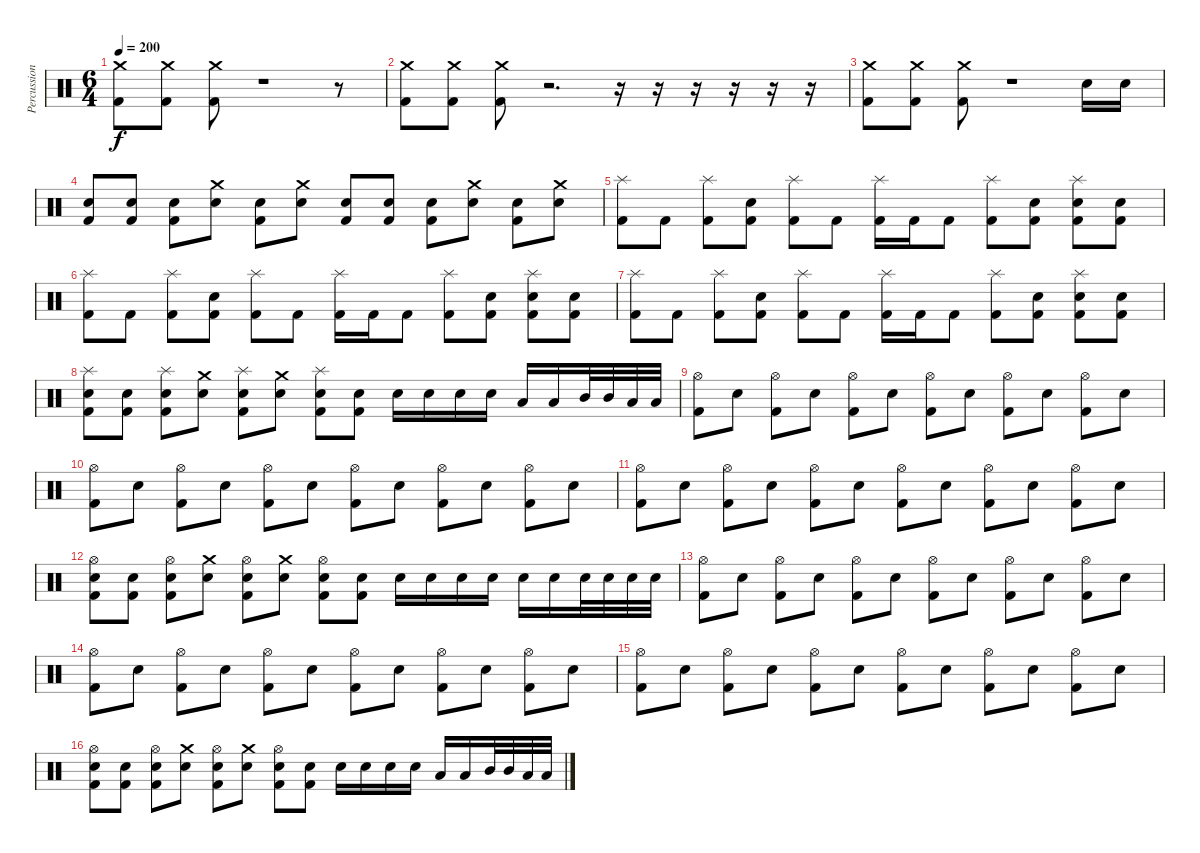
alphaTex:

\track ("Percussion" "Percussion") {instrument percussion}
\staff {score}
\articulation defaults
\ts (6 4)
\tempo 200
\clef neutral
\ks c
("Crash medium (hit)" "Kick (hit) 2").8{dy f} ("Crash medium (hit)" "Kick (hit) 2").8 ("Crash medium (hit)" "Kick (hit) 2").8 r.1 r.8 |
("Crash medium (hit)" "Kick (hit) 2").8 ("Crash medium (hit)" "Kick (hit) 2").8 ("Crash medium (hit)" "Kick (hit) 2").8 r.2{d} r.16 r.16 r.16 r.16 r.16 r.16 |
("Crash medium (hit)" "Kick (hit) 2").8 ("Crash medium (hit)" "Kick (hit) 2").8 ("Crash medium (hit)" "Kick (hit) 2").8 r.1 "Electric Snare (hit)".16 "Electric Snare (hit)".16 |
("Electric Snare (hit)" "Kick (hit) 2").8 ("Electric Snare (hit)" "Kick (hit) 2").8 ("Electric Snare (hit)" "Kick (hit) 2").8 ("Crash medium (hit)" "Electric Snare (hit)").8 ("Electric Snare (hit)" "Kick (hit) 2").8 ("Crash medium (hit)" "Electric Snare (hit)").8 ("Electric Snare (hit)" "Kick (hit) 2").8 ("Electric Snare (hit)" "Kick (hit) 2").8 ("Electric Snare (hit)" "Kick (hit) 2").8 ("Crash medium (hit)" "Electric Snare (hit)").8 ("Electric Snare (hit)" "Kick (hit) 2").8 ("Crash medium (hit)" "Electric Snare (hit)").8 |
("Splash (hit)" "Kick (hit) 2").8 "Kick (hit) 2".8 ("Splash (hit)" "Kick (hit) 2").8 ("Electric Snare (hit)" "Kick (hit) 2").8 ("Splash (hit)" "Kick (hit) 2").8 "Kick (hit) 2".8 ("Splash (hit)" "Kick (hit) 2").16 "Kick (hit) 2".16 "Kick (hit) 2".8 ("Splash (hit)" "Kick (hit) 2").8 ("Electric Snare (hit)" "Kick (hit) 2").8 ("Splash (hit)" "Electric Snare (hit)" "Kick (hit) 2").8 ("Electric Snare (hit)" "Kick (hit) 2").8 |
("Splash (hit)" "Kick (hit) 2").8 "Kick (hit) 2".8 ("Splash (hit)" "Kick (hit) 2").8 ("Electric Snare (hit)" "Kick (hit) 2").8 ("Splash (hit)" "Kick (hit) 2").8 "Kick (hit) 2".8 ("Splash (hit)" "Kick (hit) 2").16 "Kick (hit) 2".16 "Kick (hit) 2".8 ("Splash (hit)" "Kick (hit) 2").8 ("Electric Snare (hit)" "Kick (hit) 2").8 ("Splash (hit)" "Electric Snare (hit)" "Kick (hit) 2").8 ("Electric Snare (hit)" "Kick (hit) 2").8 |
("Splash (hit)" "Kick (hit) 2").8 "Kick (hit) 2".8 ("Splash (hit)" "Kick (hit) 2").8 ("Electric Snare (hit)" "Kick (hit) 2").8 ("Splash (hit)" "Kick (hit) 2").8 "Kick (hit) 2".8 ("Splash (hit)" "Kick (hit) 2").16 "Kick (hit) 2".16 "Kick (hit) 2".8 ("Splash (hit)" "Kick (hit) 2").8 ("Electric Snare (hit)" "Kick (hit) 2").8 ("Splash (hit)" "Electric Snare (hit)" "Kick (hit) 2").8 ("Electric Snare (hit)" "Kick (hit) 2").8 |
("Splash (hit)" "Electric Snare (hit)" "Kick (hit) 2").8 ("Electric Snare (hit)" "Kick (hit) 2").8 ("Splash (hit)" "Electric Snare (hit)" "Kick (hit) 2").8 ("Crash medium (hit)" "Electric Snare (hit)").8 ("Splash (hit)" "Electric Snare (hit)" "Kick (hit) 2").8 ("Crash medium (hit)" "Electric Snare (hit)").8 ("Splash (hit)" "Electric Snare (hit)" "Kick (hit) 2").8 ("Electric Snare (hit)" "Kick (hit) 2").8 "Electric Snare (hit)".16 "Electric Snare (hit)".16 "Electric Snare (hit)".16 "Electric Snare (hit)".16 "Low Tom (hit)".16 "Low Tom (hit)".16 "Mid Tom (hit)".32 "Mid Tom (hit)".32 "Low Floor Tom (hit)".32 "Low Floor Tom (hit)".32 |
("Hi-Hat (open)" "Kick (hit) 2").8 "Electric Snare (hit)".8 ("Hi-Hat (open)" "Kick (hit) 2").8 "Electric Snare (hit)".8 ("Hi-Hat (open)" "Kick (hit) 2").8 "Electric Snare (hit)".8 ("Hi-Hat (open)" "Kick (hit) 2").8 "Electric Snare (hit)".8 ("Hi-Hat (open)" "Kick (hit) 2").8 "Electric Snare (hit)".8 ("Hi-Hat (open)" "Kick (hit) 2").8 "Electric Snare (hit)".8 |
("Hi-Hat (open)" "Kick (hit) 2").8 "Electric Snare (hit)".8 ("Hi-Hat (open)" "Kick (hit) 2").8 "Electric Snare (hit)".8 ("Hi-Hat (open)" "Kick (hit) 2").8 "Electric Snare (hit)".8 ("Hi-Hat (open)" "Kick (hit) 2").8 "Electric Snare (hit)".8 ("Hi-Hat (open)" "Kick (hit) 2").8 "Electric Snare (hit)".8 ("Hi-Hat (open)" "Kick (hit) 2").8 "Electric Snare (hit)".8 |
("Hi-Hat (open)" "Kick (hit) 2").8 "Electric Snare (hit)".8 ("Hi-Hat (open)" "Kick (hit) 2").8 "Electric Snare (hit)".8 ("Hi-Hat (open)" "Kick (hit) 2").8 "Electric Snare (hit)".8 ("Hi-Hat (open)" "Kick (hit) 2").8 "Electric Snare (hit)".8 ("Hi-Hat (open)" "Kick (hit) 2").8 "Electric Snare (hit)".8 ("Hi-Hat (open)" "Kick (hit) 2").8 "Electric Snare (hit)".8 |
("Hi-Hat (open)" "Electric Snare (hit)" "Kick (hit) 2").8 ("Electric Snare (hit)" "Kick (hit) 2").8 ("Hi-Hat (open)" "Electric Snare (hit)" "Kick (hit) 2").8 ("Crash medium (hit)" "Electric Snare (hit)").8 ("Hi-Hat (open)" "Electric Snare (hit)" "Kick (hit) 2").8 ("Crash medium (hit)" "Electric Snare (hit)").8 ("Hi-Hat (open)" "Electric Snare (hit)" "Kick (hit) 2").8 ("Electric Snare (hit)" "Kick (hit) 2").8 "Electric Snare (hit)".16 "Electric Snare (hit)".16 "Electric Snare (hit)".16 "Electric Snare (hit)".16 "Electric Snare (hit)".16 "Electric Snare (hit)".16 "Electric Snare (hit)".32 "Electric Snare (hit)".32 "Electric Snare (hit)".32 "Electric Snare (hit)".32 |
("Hi-Hat (open)" "Kick (hit) 2").8 "Electric Snare (hit)".8 ("Hi-Hat (open)" "Kick (hit) 2").8 "Electric Snare (hit)".8 ("Hi-Hat (open)" "Kick (hit) 2").8 "Electric Snare (hit)".8 ("Hi-Hat (open)" "Kick (hit) 2").8 "Electric Snare (hit)".8 ("Hi-Hat (open)" "Kick (hit) 2").8 "Electric Snare (hit)".8 ("Hi-Hat (open)" "Kick (hit) 2").8 "Electric Snare (hit)".8 |
("Hi-Hat (open)" "Kick (hit) 2").8 "Electric Snare (hit)".8 ("Hi-Hat (open)" "Kick (hit) 2").8 "Electric Snare (hit)".8 ("Hi-Hat (open)" "Kick (hit) 2").8 "Electric Snare (hit)".8 ("Hi-Hat (open)" "Kick (hit) 2").8 "Electric Snare (hit)".8 ("Hi-Hat (open)" "Kick (hit) 2").8 "Electric Snare (hit)".8 ("Hi-Hat (open)" "Kick (hit) 2").8 "Electric Snare (hit)".8 |
("Hi-Hat (open)" "Kick (hit) 2").8 "Electric Snare (hit)".8 ("Hi-Hat (open)" "Kick (hit) 2").8 "Electric Snare (hit)".8 ("Hi-Hat (open)" "Kick (hit) 2").8 "Electric Snare (hit)".8 ("Hi-Hat (open)" "Kick (hit) 2").8 "Electric Snare (hit)".8 ("Hi-Hat (open)" "Kick (hit) 2").8 "Electric Snare (hit)".8 ("Hi-Hat (open)" "Kick (hit) 2").8 "Electric Snare (hit)".8 |
("Hi-Hat (open)" "Electric Snare (hit)" "Kick (hit) 2").8 ("Electric Snare (hit)" "Kick (hit) 2").8 ("Hi-Hat (open)" "Electric Snare (hit)" "Kick (hit) 2").8 ("Crash medium (hit)" "Electric Snare (hit)").8 ("Hi-Hat (open)" "Electric Snare (hit)" "Kick (hit) 2").8 ("Crash medium (hit)" "Electric Snare (hit)").8 ("Hi-Hat (open)" "Electric Snare (hit)" "Kick (hit) 2").8 ("Electric Snare (hit)" "Kick (hit) 2").8 "Electric Snare (hit)".16 "Electric Snare (hit)".16 "Electric Snare (hit)".16 "Electric Snare (hit)".16 "Low Tom (hit)".16 "Low Tom (hit)".16 "Mid Tom (hit)".32 "Mid Tom (hit)".32 "Low Floor Tom (hit)".32 "Low Floor Tom (hit)".32
